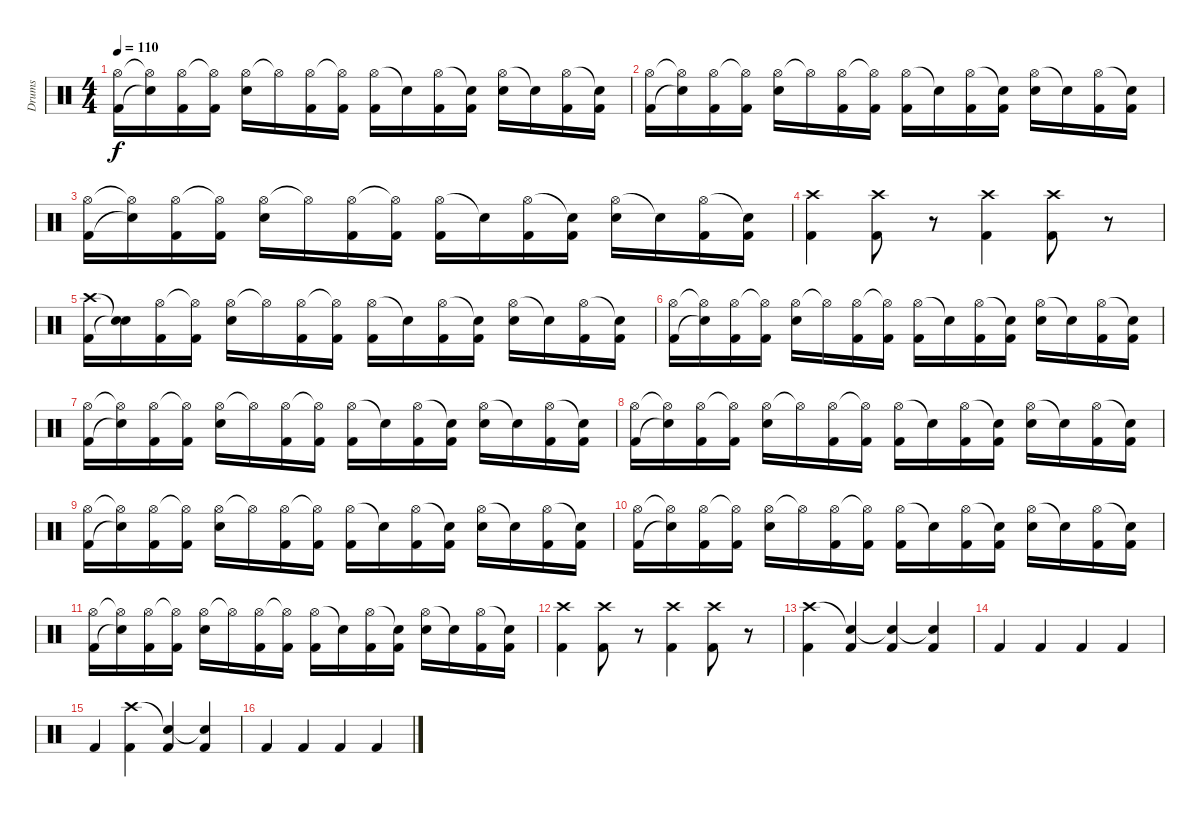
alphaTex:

\track ("Drums" "Drums") {instrument percussion}
\staff {score}
\articulation defaults
\ts (4 4)
\tempo 110
\clef neutral
\ks c
("Hi-Hat (open)" "Kick (hit) 2").16{dy f} ("Hi-Hat (open)"{t} "Snare (hit)"{t}).16 ("Hi-Hat (open)" "Kick (hit) 2").16 ("Hi-Hat (open)"{t} "Kick (hit) 2").16 ("Hi-Hat (open)" "Snare (hit) 2").16 "Hi-Hat (open)"{t}.16 ("Hi-Hat (open)" "Kick (hit) 2").16 ("Hi-Hat (open)"{t} "Kick (hit) 2").16 ("Hi-Hat (open)" "Kick (hit) 2").16 "Snare (hit)"{t}.16 ("Hi-Hat (open)" "Kick (hit) 2").16 ("Snare (hit)"{t} "Kick (hit) 2").16 ("Hi-Hat (open)" "Snare (hit) 2").16 "Snare (hit)"{t}.16 ("Hi-Hat (open)" "Kick (hit) 2").16 ("Snare (hit)"{t} "Kick (hit) 2").16 |
("Hi-Hat (open)" "Kick (hit) 2").16 ("Hi-Hat (open)"{t} "Snare (hit)"{t}).16 ("Hi-Hat (open)" "Kick (hit) 2").16 ("Hi-Hat (open)"{t} "Kick (hit) 2").16 ("Hi-Hat (open)" "Snare (hit) 2").16 "Hi-Hat (open)"{t}.16 ("Hi-Hat (open)" "Kick (hit) 2").16 ("Hi-Hat (open)"{t} "Kick (hit) 2").16 ("Hi-Hat (open)" "Kick (hit) 2").16 "Snare (hit)"{t}.16 ("Hi-Hat (open)" "Kick (hit) 2").16 ("Snare (hit)"{t} "Kick (hit) 2").16 ("Hi-Hat (open)" "Snare (hit) 2").16 "Snare (hit)"{t}.16 ("Hi-Hat (open)" "Kick (hit) 2").16 ("Snare (hit)"{t} "Kick (hit) 2").16 |
("Hi-Hat (open)" "Kick (hit) 2").16 ("Hi-Hat (open)"{t} "Snare (hit)"{t}).16 ("Hi-Hat (open)" "Kick (hit) 2").16 ("Hi-Hat (open)"{t} "Kick (hit) 2").16 ("Hi-Hat (open)" "Snare (hit) 2").16 "Hi-Hat (open)"{t}.16 ("Hi-Hat (open)" "Kick (hit) 2").16 ("Hi-Hat (open)"{t} "Kick (hit) 2").16 ("Hi-Hat (open)" "Kick (hit) 2").16 "Snare (hit)"{t}.16 ("Hi-Hat (open)" "Kick (hit) 2").16 ("Snare (hit)"{t} "Kick (hit) 2").16 ("Hi-Hat (open)" "Snare (hit) 2").16 "Snare (hit)"{t}.16 ("Hi-Hat (open)" "Kick (hit) 2").16 ("Snare (hit)"{t} "Kick (hit) 2").16 |
("Crash high (hit)" "Kick (hit) 2").4 ("Crash high (hit)" "Kick (hit) 2").8 r.8 ("Crash high (hit)" "Kick (hit) 2").4 ("Crash high (hit)" "Kick (hit) 2").8 r.8 |
("Crash high (hit)" "Kick (hit) 2").16 ("Snare (hit)"{t} "Snare (hit)"{t}).16 ("Hi-Hat (open)" "Kick (hit) 2").16 ("Hi-Hat (open)"{t} "Kick (hit) 2").16 ("Hi-Hat (open)" "Snare (hit) 2").16 "Hi-Hat (open)"{t}.16 ("Hi-Hat (open)" "Kick (hit) 2").16 ("Hi-Hat (open)"{t} "Kick (hit) 2").16 ("Hi-Hat (open)" "Kick (hit) 2").16 "Snare (hit)"{t}.16 ("Hi-Hat (open)" "Kick (hit) 2").16 ("Snare (hit)"{t} "Kick (hit) 2").16 ("Hi-Hat (open)" "Snare (hit) 2").16 "Snare (hit)"{t}.16 ("Hi-Hat (open)" "Kick (hit) 2").16 ("Snare (hit)"{t} "Kick (hit) 2").16 |
("Hi-Hat (open)" "Kick (hit) 2").16 ("Hi-Hat (open)"{t} "Snare (hit)"{t}).16 ("Hi-Hat (open)" "Kick (hit) 2").16 ("Hi-Hat (open)"{t} "Kick (hit) 2").16 ("Hi-Hat (open)" "Snare (hit) 2").16 "Hi-Hat (open)"{t}.16 ("Hi-Hat (open)" "Kick (hit) 2").16 ("Hi-Hat (open)"{t} "Kick (hit) 2").16 ("Hi-Hat (open)" "Kick (hit) 2").16 "Snare (hit)"{t}.16 ("Hi-Hat (open)" "Kick (hit) 2").16 ("Snare (hit)"{t} "Kick (hit) 2").16 ("Hi-Hat (open)" "Snare (hit) 2").16 "Snare (hit)"{t}.16 ("Hi-Hat (open)" "Kick (hit) 2").16 ("Snare (hit)"{t} "Kick (hit) 2").16 |
("Hi-Hat (open)" "Kick (hit) 2").16 ("Hi-Hat (open)"{t} "Snare (hit)"{t}).16 ("Hi-Hat (open)" "Kick (hit) 2").16 ("Hi-Hat (open)"{t} "Kick (hit) 2").16 ("Hi-Hat (open)" "Snare (hit) 2").16 "Hi-Hat (open)"{t}.16 ("Hi-Hat (open)" "Kick (hit) 2").16 ("Hi-Hat (open)"{t} "Kick (hit) 2").16 ("Hi-Hat (open)" "Kick (hit) 2").16 "Snare (hit)"{t}.16 ("Hi-Hat (open)" "Kick (hit) 2").16 ("Snare (hit)"{t} "Kick (hit) 2").16 ("Hi-Hat (open)" "Snare (hit) 2").16 "Snare (hit)"{t}.16 ("Hi-Hat (open)" "Kick (hit) 2").16 ("Snare (hit)"{t} "Kick (hit) 2").16 |
("Hi-Hat (open)" "Kick (hit) 2").16 ("Hi-Hat (open)"{t} "Snare (hit)"{t}).16 ("Hi-Hat (open)" "Kick (hit) 2").16 ("Hi-Hat (open)"{t} "Kick (hit) 2").16 ("Hi-Hat (open)" "Snare (hit) 2").16 "Hi-Hat (open)"{t}.16 ("Hi-Hat (open)" "Kick (hit) 2").16 ("Hi-Hat (open)"{t} "Kick (hit) 2").16 ("Hi-Hat (open)" "Kick (hit) 2").16 "Snare (hit)"{t}.16 ("Hi-Hat (open)" "Kick (hit) 2").16 ("Snare (hit)"{t} "Kick (hit) 2").16 ("Hi-Hat (open)" "Snare (hit) 2").16 "Snare (hit)"{t}.16 ("Hi-Hat (open)" "Kick (hit) 2").16 ("Snare (hit)"{t} "Kick (hit) 2").16 |
("Hi-Hat (open)" "Kick (hit) 2").16 ("Hi-Hat (open)"{t} "Snare (hit)"{t}).16 ("Hi-Hat (open)" "Kick (hit) 2").16 ("Hi-Hat (open)"{t} "Kick (hit) 2").16 ("Hi-Hat (open)" "Snare (hit) 2").16 "Hi-Hat (open)"{t}.16 ("Hi-Hat (open)" "Kick (hit) 2").16 ("Hi-Hat (open)"{t} "Kick (hit) 2").16 ("Hi-Hat (open)" "Kick (hit) 2").16 "Snare (hit)"{t}.16 ("Hi-Hat (open)" "Kick (hit) 2").16 ("Snare (hit)"{t} "Kick (hit) 2").16 ("Hi-Hat (open)" "Snare (hit) 2").16 "Snare (hit)"{t}.16 ("Hi-Hat (open)" "Kick (hit) 2").16 ("Snare (hit)"{t} "Kick (hit) 2").16 |
("Hi-Hat (open)" "Kick (hit) 2").16 ("Hi-Hat (open)"{t} "Snare (hit)"{t}).16 ("Hi-Hat (open)" "Kick (hit) 2").16 ("Hi-Hat (open)"{t} "Kick (hit) 2").16 ("Hi-Hat (open)" "Snare (hit) 2").16 "Hi-Hat (open)"{t}.16 ("Hi-Hat (open)" "Kick (hit) 2").16 ("Hi-Hat (open)"{t} "Kick (hit) 2").16 ("Hi-Hat (open)" "Kick (hit) 2").16 "Snare (hit)"{t}.16 ("Hi-Hat (open)" "Kick (hit) 2").16 ("Snare (hit)"{t} "Kick (hit) 2").16 ("Hi-Hat (open)" "Snare (hit) 2").16 "Snare (hit)"{t}.16 ("Hi-Hat (open)" "Kick (hit) 2").16 ("Snare (hit)"{t} "Kick (hit) 2").16 |
("Hi-Hat (open)" "Kick (hit) 2").16 ("Hi-Hat (open)"{t} "Snare (hit)"{t}).16 ("Hi-Hat (open)" "Kick (hit) 2").16 ("Hi-Hat (open)"{t} "Kick (hit) 2").16 ("Hi-Hat (open)" "Snare (hit) 2").16 "Hi-Hat (open)"{t}.16 ("Hi-Hat (open)" "Kick (hit) 2").16 ("Hi-Hat (open)"{t} "Kick (hit) 2").16 ("Hi-Hat (open)" "Kick (hit) 2").16 "Snare (hit)"{t}.16 ("Hi-Hat (open)" "Kick (hit) 2").16 ("Snare (hit)"{t} "Kick (hit) 2").16 ("Hi-Hat (open)" "Snare (hit) 2").16 "Snare (hit)"{t}.16 ("Hi-Hat (open)" "Kick (hit) 2").16 ("Snare (hit)"{t} "Kick (hit) 2").16 |
("Crash high (hit)" "Kick (hit) 2").4 ("Crash high (hit)" "Kick (hit) 2").8 r.8 ("Crash high (hit)" "Kick (hit) 2").4 ("Crash high (hit)" "Kick (hit) 2").8 r.8 |
("Crash high (hit)" "Kick (hit) 2").4 ("Snare (hit)"{t} "Kick (hit) 2").4 ("Snare (hit)"{t} "Kick (hit) 2").4 ("Snare (hit)"{t} "Kick (hit) 2").4 |
"Kick (hit) 2".4 "Kick (hit) 2".4 "Kick (hit) 2".4 "Kick (hit) 2".4 |
"Kick (hit) 2".4 ("Crash high (hit)" "Kick (hit) 2").4 ("Snare (hit)"{t} "Kick (hit) 2").4 ("Snare (hit)"{t} "Kick (hit) 2").4 |
"Kick (hit) 2".4 "Kick (hit) 2".4 "Kick (hit) 2".4 "Kick (hit) 2".4
